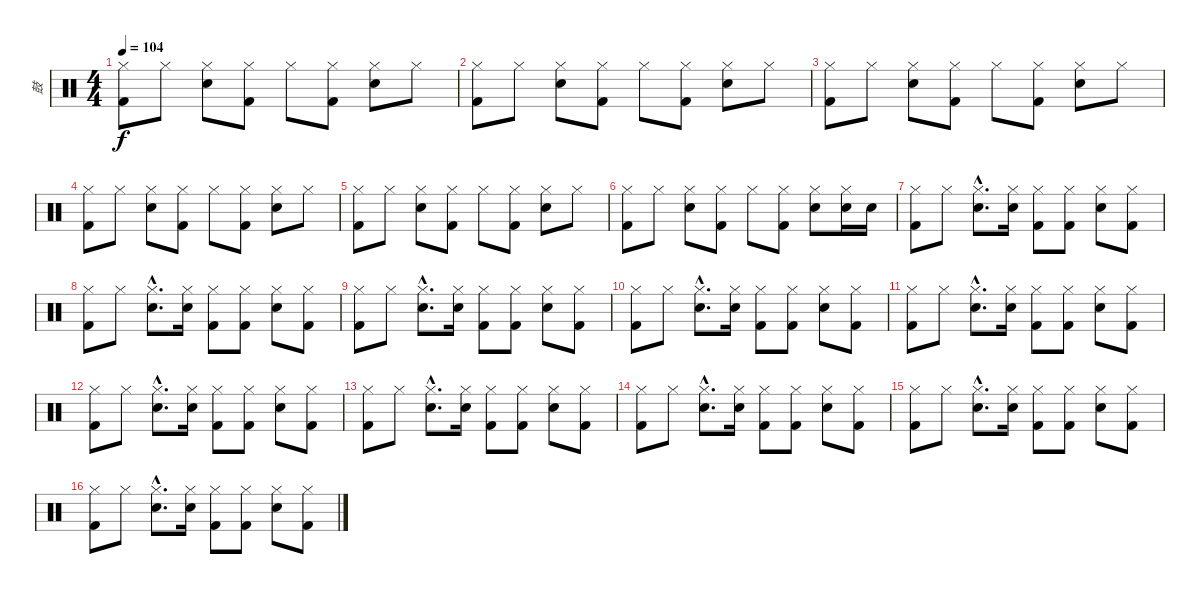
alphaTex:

\track ("鼓" "鼓") {instrument percussion}
\staff {score}
\articulation defaults
\ts (4 4)
\tempo 104
\clef neutral
\ks c
("Hi-Hat (closed)" "Kick (hit) 2").8{dy f} "Hi-Hat (closed)".8 ("Hi-Hat (closed)" "Snare (hit) 2").8 ("Hi-Hat (closed)" "Kick (hit) 2").8 "Hi-Hat (closed)".8 ("Hi-Hat (closed)" "Kick (hit) 2").8 ("Hi-Hat (closed)" "Snare (hit) 2").8 "Hi-Hat (closed)".8 |
("Hi-Hat (closed)" "Kick (hit) 2").8 "Hi-Hat (closed)".8 ("Hi-Hat (closed)" "Snare (hit) 2").8 ("Hi-Hat (closed)" "Kick (hit) 2").8 "Hi-Hat (closed)".8 ("Hi-Hat (closed)" "Kick (hit) 2").8 ("Hi-Hat (closed)" "Snare (hit) 2").8 "Hi-Hat (closed)".8 |
("Hi-Hat (closed)" "Kick (hit) 2").8 "Hi-Hat (closed)".8 ("Hi-Hat (closed)" "Snare (hit) 2").8 ("Hi-Hat (closed)" "Kick (hit) 2").8 "Hi-Hat (closed)".8 ("Hi-Hat (closed)" "Kick (hit) 2").8 ("Hi-Hat (closed)" "Snare (hit) 2").8 "Hi-Hat (closed)".8 |
("Hi-Hat (closed)" "Kick (hit) 2").8 "Hi-Hat (closed)".8 ("Hi-Hat (closed)" "Snare (hit) 2").8 ("Hi-Hat (closed)" "Kick (hit) 2").8 "Hi-Hat (closed)".8 ("Hi-Hat (closed)" "Kick (hit) 2").8 ("Hi-Hat (closed)" "Snare (hit) 2").8 "Hi-Hat (closed)".8 |
("Hi-Hat (closed)" "Kick (hit) 2").8 "Hi-Hat (closed)".8 ("Hi-Hat (closed)" "Snare (hit) 2").8 ("Hi-Hat (closed)" "Kick (hit) 2").8 "Hi-Hat (closed)".8 ("Hi-Hat (closed)" "Kick (hit) 2").8 ("Hi-Hat (closed)" "Snare (hit) 2").8 "Hi-Hat (closed)".8 |
("Hi-Hat (closed)" "Kick (hit) 2").8 "Hi-Hat (closed)".8 ("Hi-Hat (closed)" "Snare (hit) 2").8 ("Hi-Hat (closed)" "Kick (hit) 2").8 "Hi-Hat (closed)".8 ("Hi-Hat (closed)" "Kick (hit) 2").8 ("Hi-Hat (closed)" "Snare (hit) 2").8 ("Hi-Hat (closed)" "Snare (hit) 2").16 "Snare (hit) 2".16 |
("Hi-Hat (closed)" "Kick (hit) 2").8 "Hi-Hat (closed)".8 ("Hi-Hat (closed)"{hac} "Snare (hit) 2"{hac}).8{d} ("Hi-Hat (closed)" "Snare (hit) 2").16 ("Hi-Hat (closed)" "Kick (hit) 2").8 ("Hi-Hat (closed)" "Kick (hit) 2").8 ("Hi-Hat (closed)" "Snare (hit) 2").8 ("Hi-Hat (closed)" "Kick (hit) 2").8 |
("Hi-Hat (closed)" "Kick (hit) 2").8 "Hi-Hat (closed)".8 ("Hi-Hat (closed)"{hac} "Snare (hit) 2"{hac}).8{d} ("Hi-Hat (closed)" "Snare (hit) 2").16 ("Hi-Hat (closed)" "Kick (hit) 2").8 ("Hi-Hat (closed)" "Kick (hit) 2").8 ("Hi-Hat (closed)" "Snare (hit) 2").8 ("Hi-Hat (closed)" "Kick (hit) 2").8 |
("Hi-Hat (closed)" "Kick (hit) 2").8 "Hi-Hat (closed)".8 ("Hi-Hat (closed)"{hac} "Snare (hit) 2"{hac}).8{d} ("Hi-Hat (closed)" "Snare (hit) 2").16 ("Hi-Hat (closed)" "Kick (hit) 2").8 ("Hi-Hat (closed)" "Kick (hit) 2").8 ("Hi-Hat (closed)" "Snare (hit) 2").8 ("Hi-Hat (closed)" "Kick (hit) 2").8 |
("Hi-Hat (closed)" "Kick (hit) 2").8 "Hi-Hat (closed)".8 ("Hi-Hat (closed)"{hac} "Snare (hit) 2"{hac}).8{d} ("Hi-Hat (closed)" "Snare (hit) 2").16 ("Hi-Hat (closed)" "Kick (hit) 2").8 ("Hi-Hat (closed)" "Kick (hit) 2").8 ("Hi-Hat (closed)" "Snare (hit) 2").8 ("Hi-Hat (closed)" "Kick (hit) 2").8 |
("Hi-Hat (closed)" "Kick (hit) 2").8 "Hi-Hat (closed)".8 ("Hi-Hat (closed)"{hac} "Snare (hit) 2"{hac}).8{d} ("Hi-Hat (closed)" "Snare (hit) 2").16 ("Hi-Hat (closed)" "Kick (hit) 2").8 ("Hi-Hat (closed)" "Kick (hit) 2").8 ("Hi-Hat (closed)" "Snare (hit) 2").8 ("Hi-Hat (closed)" "Kick (hit) 2").8 |
("Hi-Hat (closed)" "Kick (hit) 2").8 "Hi-Hat (closed)".8 ("Hi-Hat (closed)"{hac} "Snare (hit) 2"{hac}).8{d} ("Hi-Hat (closed)" "Snare (hit) 2").16 ("Hi-Hat (closed)" "Kick (hit) 2").8 ("Hi-Hat (closed)" "Kick (hit) 2").8 ("Hi-Hat (closed)" "Snare (hit) 2").8 ("Hi-Hat (closed)" "Kick (hit) 2").8 |
("Hi-Hat (closed)" "Kick (hit) 2").8 "Hi-Hat (closed)".8 ("Hi-Hat (closed)"{hac} "Snare (hit) 2"{hac}).8{d} ("Hi-Hat (closed)" "Snare (hit) 2").16 ("Hi-Hat (closed)" "Kick (hit) 2").8 ("Hi-Hat (closed)" "Kick (hit) 2").8 ("Hi-Hat (closed)" "Snare (hit) 2").8 ("Hi-Hat (closed)" "Kick (hit) 2").8 |
("Hi-Hat (closed)" "Kick (hit) 2").8 "Hi-Hat (closed)".8 ("Hi-Hat (closed)"{hac} "Snare (hit) 2"{hac}).8{d} ("Hi-Hat (closed)" "Snare (hit) 2").16 ("Hi-Hat (closed)" "Kick (hit) 2").8 ("Hi-Hat (closed)" "Kick (hit) 2").8 ("Hi-Hat (closed)" "Snare (hit) 2").8 ("Hi-Hat (closed)" "Kick (hit) 2").8 |
("Hi-Hat (closed)" "Kick (hit) 2").8 "Hi-Hat (closed)".8 ("Hi-Hat (closed)"{hac} "Snare (hit) 2"{hac}).8{d} ("Hi-Hat (closed)" "Snare (hit) 2").16 ("Hi-Hat (closed)" "Kick (hit) 2").8 ("Hi-Hat (closed)" "Kick (hit) 2").8 ("Hi-Hat (closed)" "Snare (hit) 2").8 ("Hi-Hat (closed)" "Kick (hit) 2").8 |
("Hi-Hat (closed)" "Kick (hit) 2").8 "Hi-Hat (closed)".8 ("Hi-Hat (closed)"{hac} "Snare (hit) 2"{hac}).8{d} ("Hi-Hat (closed)" "Snare (hit) 2").16 ("Hi-Hat (closed)" "Kick (hit) 2").8 ("Hi-Hat (closed)" "Kick (hit) 2").8 ("Hi-Hat (closed)" "Snare (hit) 2").8 ("Hi-Hat (closed)" "Kick (hit) 2").8
